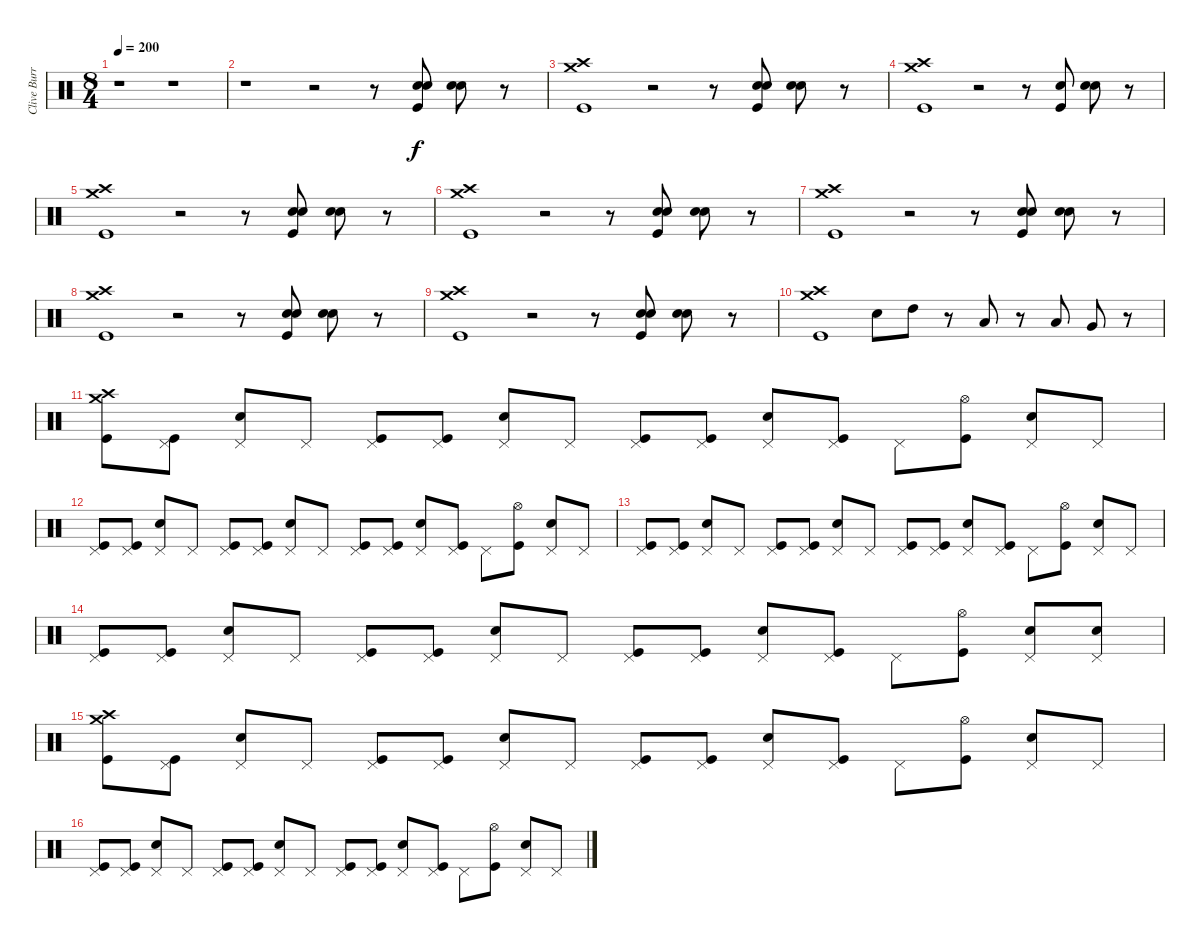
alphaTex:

\track ("Clive Burr" "Clive Burr") {instrument percussion}
\staff {score}
\articulation defaults
\ts (8 4)
\tempo 200
\clef neutral
\ks c
r.1{dy f} r.1 |
r.1 r.2 r.8 ("Snare (hit) 2" "Snare (hit) 2" "Kick (hit)").8 ("Snare (hit) 2" "Snare (hit) 2").8 r.8 |
("Crash medium (hit)" "Crash high (hit)" "Kick (hit)").1 r.2 r.8 ("Snare (hit) 2" "Snare (hit) 2" "Kick (hit)").8 ("Snare (hit) 2" "Snare (hit) 2").8 r.8 |
("Crash medium (hit)" "Crash high (hit)" "Kick (hit)").1 r.2 r.8 ("Snare (hit) 2" "Kick (hit)").8 ("Snare (hit) 2" "Snare (hit) 2").8 r.8 |
("Crash medium (hit)" "Crash high (hit)" "Kick (hit)").1 r.2 r.8 ("Snare (hit) 2" "Snare (hit) 2" "Kick (hit)").8 ("Snare (hit) 2" "Snare (hit) 2").8 r.8 |
("Crash medium (hit)" "Crash high (hit)" "Kick (hit)").1 r.2 r.8 ("Snare (hit) 2" "Snare (hit) 2" "Kick (hit)").8 ("Snare (hit) 2" "Snare (hit) 2").8 r.8 |
("Crash medium (hit)" "Crash high (hit)" "Kick (hit)").1 r.2 r.8 ("Snare (hit) 2" "Snare (hit) 2" "Kick (hit)").8 ("Snare (hit) 2" "Snare (hit) 2").8 r.8 |
("Crash medium (hit)" "Crash high (hit)" "Kick (hit)").1 r.2 r.8 ("Snare (hit) 2" "Snare (hit) 2" "Kick (hit)").8 ("Snare (hit) 2" "Snare (hit) 2").8 r.8 |
("Crash medium (hit)" "Crash high (hit)" "Kick (hit)").1 r.2 r.8 ("Snare (hit) 2" "Snare (hit) 2" "Kick (hit)").8 ("Snare (hit) 2" "Snare (hit) 2").8 r.8 |
("Crash medium (hit)" "Crash high (hit)" "Kick (hit)").1 "Snare (hit) 2".8 "High Tom (hit)".8 r.8 "Low Tom (hit)".8 r.8 "Low Tom (hit)".8 "Very Low Tom (hit)".8 r.8 |
("Crash medium (hit)" "Crash high (hit)" "Kick (hit)").8 ("Pedal Hi-Hat (hit)" "Kick (hit)").8 ("Pedal Hi-Hat (hit)" "Snare (hit) 2").8 "Pedal Hi-Hat (hit)".8 ("Pedal Hi-Hat (hit)" "Kick (hit)").8 ("Pedal Hi-Hat (hit)" "Kick (hit)").8 ("Pedal Hi-Hat (hit)" "Snare (hit) 2").8 "Pedal Hi-Hat (hit)".8 ("Pedal Hi-Hat (hit)" "Kick (hit)").8 ("Pedal Hi-Hat (hit)" "Kick (hit)").8 ("Pedal Hi-Hat (hit)" "Snare (hit) 2").8 ("Pedal Hi-Hat (hit)" "Kick (hit)").8 "Pedal Hi-Hat (hit)".8 ("Hi-Hat (open)" "Kick (hit)").8 ("Pedal Hi-Hat (hit)" "Snare (hit) 2").8 "Pedal Hi-Hat (hit)".8 |
("Pedal Hi-Hat (hit)" "Kick (hit)").8 ("Pedal Hi-Hat (hit)" "Kick (hit)").8 ("Pedal Hi-Hat (hit)" "Snare (hit) 2").8 "Pedal Hi-Hat (hit)".8 ("Pedal Hi-Hat (hit)" "Kick (hit)").8 ("Pedal Hi-Hat (hit)" "Kick (hit)").8 ("Pedal Hi-Hat (hit)" "Snare (hit) 2").8 "Pedal Hi-Hat (hit)".8 ("Pedal Hi-Hat (hit)" "Kick (hit)").8 ("Pedal Hi-Hat (hit)" "Kick (hit)").8 ("Pedal Hi-Hat (hit)" "Snare (hit) 2").8 ("Pedal Hi-Hat (hit)" "Kick (hit)").8 "Pedal Hi-Hat (hit)".8 ("Hi-Hat (open)" "Kick (hit)").8 ("Pedal Hi-Hat (hit)" "Snare (hit) 2").8 "Pedal Hi-Hat (hit)".8 |
("Pedal Hi-Hat (hit)" "Kick (hit)").8 ("Pedal Hi-Hat (hit)" "Kick (hit)").8 ("Pedal Hi-Hat (hit)" "Snare (hit) 2").8 "Pedal Hi-Hat (hit)".8 ("Pedal Hi-Hat (hit)" "Kick (hit)").8 ("Pedal Hi-Hat (hit)" "Kick (hit)").8 ("Pedal Hi-Hat (hit)" "Snare (hit) 2").8 "Pedal Hi-Hat (hit)".8 ("Pedal Hi-Hat (hit)" "Kick (hit)").8 ("Pedal Hi-Hat (hit)" "Kick (hit)").8 ("Pedal Hi-Hat (hit)" "Snare (hit) 2").8 ("Pedal Hi-Hat (hit)" "Kick (hit)").8 "Pedal Hi-Hat (hit)".8 ("Hi-Hat (open)" "Kick (hit)").8 ("Pedal Hi-Hat (hit)" "Snare (hit) 2").8 "Pedal Hi-Hat (hit)".8 |
("Pedal Hi-Hat (hit)" "Kick (hit)").8 ("Pedal Hi-Hat (hit)" "Kick (hit)").8 ("Pedal Hi-Hat (hit)" "Snare (hit) 2").8 "Pedal Hi-Hat (hit)".8 ("Pedal Hi-Hat (hit)" "Kick (hit)").8 ("Pedal Hi-Hat (hit)" "Kick (hit)").8 ("Pedal Hi-Hat (hit)" "Snare (hit) 2").8 "Pedal Hi-Hat (hit)".8 ("Pedal Hi-Hat (hit)" "Kick (hit)").8 ("Pedal Hi-Hat (hit)" "Kick (hit)").8 ("Pedal Hi-Hat (hit)" "Snare (hit) 2").8 ("Pedal Hi-Hat (hit)" "Kick (hit)").8 "Pedal Hi-Hat (hit)".8 ("Hi-Hat (open)" "Kick (hit)").8 ("Pedal Hi-Hat (hit)" "Snare (hit) 2").8 ("Pedal Hi-Hat (hit)" "Snare (hit) 2").8 |
("Crash medium (hit)" "Crash high (hit)" "Kick (hit)").8 ("Pedal Hi-Hat (hit)" "Kick (hit)").8 ("Pedal Hi-Hat (hit)" "Snare (hit) 2").8 "Pedal Hi-Hat (hit)".8 ("Pedal Hi-Hat (hit)" "Kick (hit)").8 ("Pedal Hi-Hat (hit)" "Kick (hit)").8 ("Pedal Hi-Hat (hit)" "Snare (hit) 2").8 "Pedal Hi-Hat (hit)".8 ("Pedal Hi-Hat (hit)" "Kick (hit)").8 ("Pedal Hi-Hat (hit)" "Kick (hit)").8 ("Pedal Hi-Hat (hit)" "Snare (hit) 2").8 ("Pedal Hi-Hat (hit)" "Kick (hit)").8 "Pedal Hi-Hat (hit)".8 ("Hi-Hat (open)" "Kick (hit)").8 ("Pedal Hi-Hat (hit)" "Snare (hit) 2").8 "Pedal Hi-Hat (hit)".8 |
("Pedal Hi-Hat (hit)" "Kick (hit)").8 ("Pedal Hi-Hat (hit)" "Kick (hit)").8 ("Pedal Hi-Hat (hit)" "Snare (hit) 2").8 "Pedal Hi-Hat (hit)".8 ("Pedal Hi-Hat (hit)" "Kick (hit)").8 ("Pedal Hi-Hat (hit)" "Kick (hit)").8 ("Pedal Hi-Hat (hit)" "Snare (hit) 2").8 "Pedal Hi-Hat (hit)".8 ("Pedal Hi-Hat (hit)" "Kick (hit)").8 ("Pedal Hi-Hat (hit)" "Kick (hit)").8 ("Pedal Hi-Hat (hit)" "Snare (hit) 2").8 ("Pedal Hi-Hat (hit)" "Kick (hit)").8 "Pedal Hi-Hat (hit)".8 ("Hi-Hat (open)" "Kick (hit)").8 ("Pedal Hi-Hat (hit)" "Snare (hit) 2").8 "Pedal Hi-Hat (hit)".8
